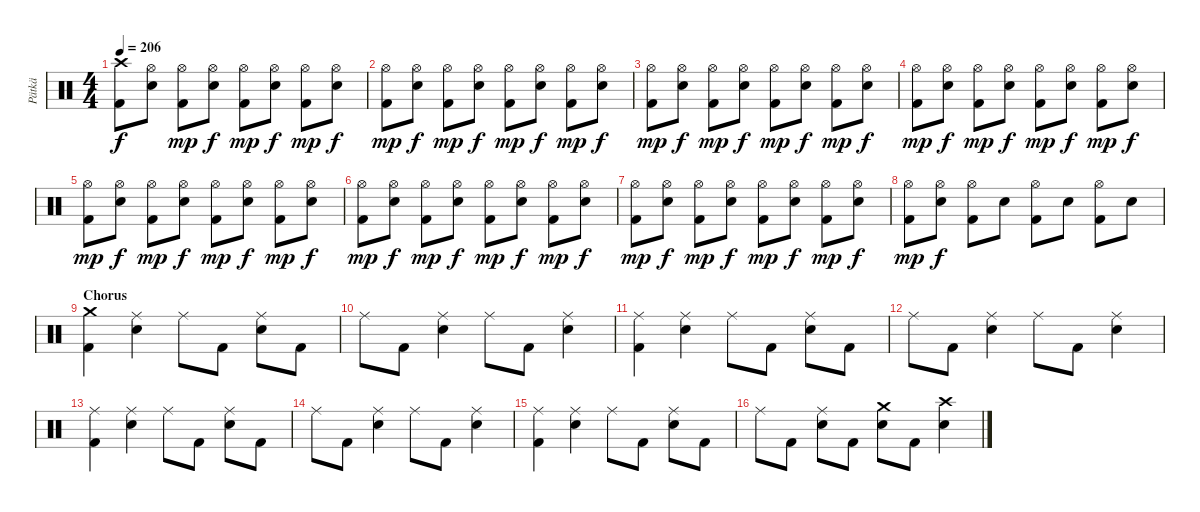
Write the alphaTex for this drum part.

\track ("Pätkä" "Pätkä") {instrument percussion}
\staff {score}
\articulation defaults
\ts (4 4)
\tempo 206
\clef neutral
\ks c
("Crash high (hit)" "Kick (hit) 2").8{dy f} ("Hi-Hat (open)" "Electric Snare (hit)").8 ("Hi-Hat (open)" "Kick (hit) 2").8{dy mp} ("Hi-Hat (open)" "Electric Snare (hit)").8{dy f} ("Hi-Hat (open)" "Kick (hit) 2").8{dy mp} ("Hi-Hat (open)" "Electric Snare (hit)").8{dy f} ("Hi-Hat (open)" "Kick (hit) 2").8{dy mp} ("Hi-Hat (open)" "Electric Snare (hit)").8{dy f} |
("Hi-Hat (open)" "Kick (hit) 2").8{dy mp} ("Hi-Hat (open)" "Electric Snare (hit)").8{dy f} ("Hi-Hat (open)" "Kick (hit) 2").8{dy mp} ("Hi-Hat (open)" "Electric Snare (hit)").8{dy f} ("Hi-Hat (open)" "Kick (hit) 2").8{dy mp} ("Hi-Hat (open)" "Electric Snare (hit)").8{dy f} ("Hi-Hat (open)" "Kick (hit) 2").8{dy mp} ("Hi-Hat (open)" "Electric Snare (hit)").8{dy f} |
("Hi-Hat (open)" "Kick (hit) 2").8{dy mp} ("Hi-Hat (open)" "Electric Snare (hit)").8{dy f} ("Hi-Hat (open)" "Kick (hit) 2").8{dy mp} ("Hi-Hat (open)" "Electric Snare (hit)").8{dy f} ("Hi-Hat (open)" "Kick (hit) 2").8{dy mp} ("Hi-Hat (open)" "Electric Snare (hit)").8{dy f} ("Hi-Hat (open)" "Kick (hit) 2").8{dy mp} ("Hi-Hat (open)" "Electric Snare (hit)").8{dy f} |
("Hi-Hat (open)" "Kick (hit) 2").8{dy mp} ("Hi-Hat (open)" "Electric Snare (hit)").8{dy f} ("Hi-Hat (open)" "Kick (hit) 2").8{dy mp} ("Hi-Hat (open)" "Electric Snare (hit)").8{dy f} ("Hi-Hat (open)" "Kick (hit) 2").8{dy mp} ("Hi-Hat (open)" "Electric Snare (hit)").8{dy f} ("Hi-Hat (open)" "Kick (hit) 2").8{dy mp} ("Hi-Hat (open)" "Electric Snare (hit)").8{dy f} |
("Hi-Hat (open)" "Kick (hit) 2").8{dy mp} ("Hi-Hat (open)" "Electric Snare (hit)").8{dy f} ("Hi-Hat (open)" "Kick (hit) 2").8{dy mp} ("Hi-Hat (open)" "Electric Snare (hit)").8{dy f} ("Hi-Hat (open)" "Kick (hit) 2").8{dy mp} ("Hi-Hat (open)" "Electric Snare (hit)").8{dy f} ("Hi-Hat (open)" "Kick (hit) 2").8{dy mp} ("Hi-Hat (open)" "Electric Snare (hit)").8{dy f} |
("Hi-Hat (open)" "Kick (hit) 2").8{dy mp} ("Hi-Hat (open)" "Electric Snare (hit)").8{dy f} ("Hi-Hat (open)" "Kick (hit) 2").8{dy mp} ("Hi-Hat (open)" "Electric Snare (hit)").8{dy f} ("Hi-Hat (open)" "Kick (hit) 2").8{dy mp} ("Hi-Hat (open)" "Electric Snare (hit)").8{dy f} ("Hi-Hat (open)" "Kick (hit) 2").8{dy mp} ("Hi-Hat (open)" "Electric Snare (hit)").8{dy f} |
("Hi-Hat (open)" "Kick (hit) 2").8{dy mp} ("Hi-Hat (open)" "Electric Snare (hit)").8{dy f} ("Hi-Hat (open)" "Kick (hit) 2").8{dy mp} ("Hi-Hat (open)" "Electric Snare (hit)").8{dy f} ("Hi-Hat (open)" "Kick (hit) 2").8{dy mp} ("Hi-Hat (open)" "Electric Snare (hit)").8{dy f} ("Hi-Hat (open)" "Kick (hit) 2").8{dy mp} ("Hi-Hat (open)" "Electric Snare (hit)").8{dy f} |
("Hi-Hat (open)" "Kick (hit) 2").8{dy mp} ("Hi-Hat (open)" "Electric Snare (hit)").8{dy f} ("Hi-Hat (open)" "Kick (hit) 2").8 "Electric Snare (hit)".8 ("Hi-Hat (open)" "Kick (hit) 2").8 "Electric Snare (hit)".8 ("Hi-Hat (open)" "Kick (hit) 2").8 "Electric Snare (hit)".8 |
\section ("" "Chorus")
("Crash medium (hit)" "Kick (hit) 2").4 ("Ride (middle)" "Electric Snare (hit)").4 "Ride (middle)".8 "Kick (hit) 2".8 ("Ride (middle)" "Electric Snare (hit)").8 "Kick (hit) 2".8 |
"Ride (middle)".8 "Kick (hit) 2".8 ("Ride (middle)" "Electric Snare (hit)").4 "Ride (middle)".8 "Kick (hit) 2".8 ("Ride (middle)" "Electric Snare (hit)").4 |
("Ride (middle)" "Kick (hit) 2").4 ("Ride (middle)" "Electric Snare (hit)").4 "Ride (middle)".8 "Kick (hit) 2".8 ("Ride (middle)" "Electric Snare (hit)").8 "Kick (hit) 2".8 |
"Ride (middle)".8 "Kick (hit) 2".8 ("Ride (middle)" "Electric Snare (hit)").4 "Ride (middle)".8 "Kick (hit) 2".8 ("Ride (middle)" "Electric Snare (hit)").4 |
("Ride (middle)" "Kick (hit) 2").4 ("Ride (middle)" "Electric Snare (hit)").4 "Ride (middle)".8 "Kick (hit) 2".8 ("Ride (middle)" "Electric Snare (hit)").8 "Kick (hit) 2".8 |
"Ride (middle)".8 "Kick (hit) 2".8 ("Ride (middle)" "Electric Snare (hit)").4 "Ride (middle)".8 "Kick (hit) 2".8 ("Ride (middle)" "Electric Snare (hit)").4 |
("Ride (middle)" "Kick (hit) 2").4 ("Ride (middle)" "Electric Snare (hit)").4 "Ride (middle)".8 "Kick (hit) 2".8 ("Ride (middle)" "Electric Snare (hit)").8 "Kick (hit) 2".8 |
"Ride (middle)".8 "Kick (hit) 2".8 ("Ride (middle)" "Electric Snare (hit)").8 "Kick (hit) 2".8 ("Crash medium (hit)" "Electric Snare (hit)").8 "Kick (hit) 2".8 ("Crash high (hit)" "Electric Snare (hit)").4
